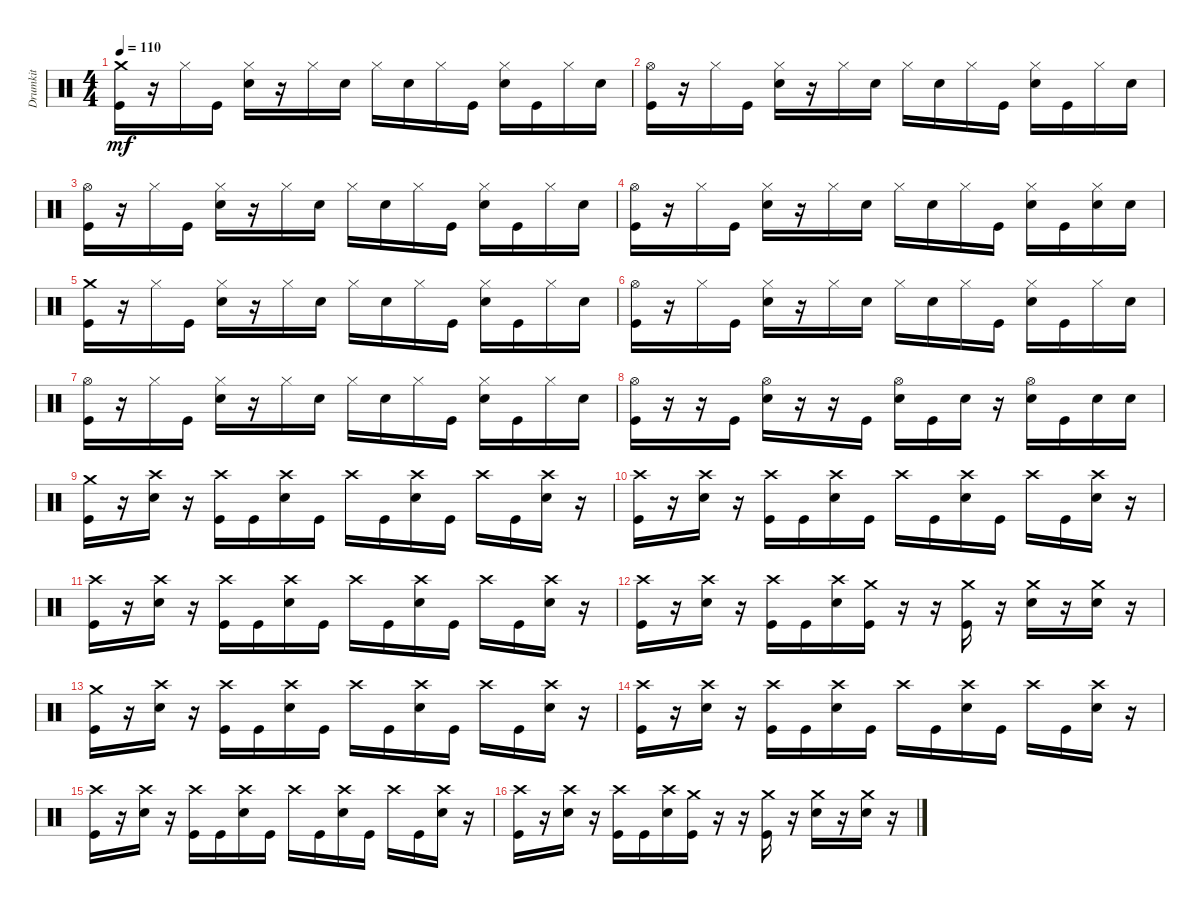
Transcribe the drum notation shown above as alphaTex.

\track ("Drumkit" "Drumkit") {instrument percussion}
\staff {score}
\articulation defaults
\ts (4 4)
\tempo 110
\clef neutral
\ks c
("Crash medium (hit)" "Kick (hit)").16{dy mf} r.16 "Hi-Hat (closed)".16 "Kick (hit)".16 ("Hi-Hat (closed)" "Snare (hit) 2").16 r.16 "Hi-Hat (closed)".16 "Snare (hit) 2".16 "Hi-Hat (closed)".16 "Snare (hit) 2".16 "Hi-Hat (closed)".16 "Kick (hit)".16 ("Hi-Hat (closed)" "Snare (hit) 2").16 "Kick (hit)".16 "Hi-Hat (closed)".16 "Snare (hit) 2".16 |
("Kick (hit)" "Hi-Hat (open)").16 r.16 "Hi-Hat (closed)".16 "Kick (hit)".16 ("Hi-Hat (closed)" "Snare (hit) 2").16 r.16 "Hi-Hat (closed)".16 "Snare (hit) 2".16 "Hi-Hat (closed)".16 "Snare (hit) 2".16 "Hi-Hat (closed)".16 "Kick (hit)".16 ("Hi-Hat (closed)" "Snare (hit) 2").16 "Kick (hit)".16 "Hi-Hat (closed)".16 "Snare (hit) 2".16 |
("Kick (hit)" "Hi-Hat (open)").16 r.16 "Hi-Hat (closed)".16 "Kick (hit)".16 ("Hi-Hat (closed)" "Snare (hit) 2").16 r.16 "Hi-Hat (closed)".16 "Snare (hit) 2".16 "Hi-Hat (closed)".16 "Snare (hit) 2".16 "Hi-Hat (closed)".16 "Kick (hit)".16 ("Hi-Hat (closed)" "Snare (hit) 2").16 "Kick (hit)".16 "Hi-Hat (closed)".16 "Snare (hit) 2".16 |
("Kick (hit)" "Hi-Hat (open)").16 r.16 "Hi-Hat (closed)".16 "Kick (hit)".16 ("Hi-Hat (closed)" "Snare (hit) 2").16 r.16 "Hi-Hat (closed)".16 "Snare (hit) 2".16 "Hi-Hat (closed)".16 "Snare (hit) 2".16 "Hi-Hat (closed)".16 "Kick (hit)".16 ("Hi-Hat (closed)" "Snare (hit) 2").16 "Kick (hit)".16 ("Hi-Hat (closed)" "Snare (hit) 2").16 "Snare (hit) 2".16 |
("Crash medium (hit)" "Kick (hit)").16 r.16 "Hi-Hat (closed)".16 "Kick (hit)".16 ("Hi-Hat (closed)" "Snare (hit) 2").16 r.16 "Hi-Hat (closed)".16 "Snare (hit) 2".16 "Hi-Hat (closed)".16 "Snare (hit) 2".16 "Hi-Hat (closed)".16 "Kick (hit)".16 ("Hi-Hat (closed)" "Snare (hit) 2").16 "Kick (hit)".16 "Hi-Hat (closed)".16 "Snare (hit) 2".16 |
("Kick (hit)" "Hi-Hat (open)").16 r.16 "Hi-Hat (closed)".16 "Kick (hit)".16 ("Hi-Hat (closed)" "Snare (hit) 2").16 r.16 "Hi-Hat (closed)".16 "Snare (hit) 2".16 "Hi-Hat (closed)".16 "Snare (hit) 2".16 "Hi-Hat (closed)".16 "Kick (hit)".16 ("Hi-Hat (closed)" "Snare (hit) 2").16 "Kick (hit)".16 "Hi-Hat (closed)".16 "Snare (hit) 2".16 |
("Kick (hit)" "Hi-Hat (open)").16 r.16 "Hi-Hat (closed)".16 "Kick (hit)".16 ("Hi-Hat (closed)" "Snare (hit) 2").16 r.16 "Hi-Hat (closed)".16 "Snare (hit) 2".16 "Hi-Hat (closed)".16 "Snare (hit) 2".16 "Hi-Hat (closed)".16 "Kick (hit)".16 ("Hi-Hat (closed)" "Snare (hit) 2").16 "Kick (hit)".16 "Hi-Hat (closed)".16 "Snare (hit) 2".16 |
("Kick (hit)" "Hi-Hat (open)").16 r.16 r.16 "Kick (hit)".16 ("Hi-Hat (open)" "Snare (hit) 2").16 r.16 r.16 "Kick (hit)".16 ("Hi-Hat (open)" "Snare (hit) 2").16 "Kick (hit)".16 "Snare (hit) 2".16 r.16 ("Hi-Hat (open)" "Snare (hit) 2").16 "Kick (hit)".16 "Snare (hit) 2".16 "Snare (hit) 2".16 |
("Crash medium (hit)" "Kick (hit)").16 r.16 ("Crash high (hit)" "Snare (hit) 2").16 r.16 ("Crash high (hit)" "Kick (hit)").16 "Kick (hit)".16 ("Crash high (hit)" "Snare (hit) 2").16 "Kick (hit)".16 "Crash high (hit)".16 "Kick (hit)".16 ("Crash high (hit)" "Snare (hit) 2").16 "Kick (hit)".16 "Crash high (hit)".16 "Kick (hit)".16 ("Crash high (hit)" "Snare (hit) 2").16 r.16 |
("Kick (hit)" "Crash high (hit)").16 r.16 ("Crash high (hit)" "Snare (hit) 2").16 r.16 ("Crash high (hit)" "Kick (hit)").16 "Kick (hit)".16 ("Crash high (hit)" "Snare (hit) 2").16 "Kick (hit)".16 "Crash high (hit)".16 "Kick (hit)".16 ("Crash high (hit)" "Snare (hit) 2").16 "Kick (hit)".16 "Crash high (hit)".16 "Kick (hit)".16 ("Crash high (hit)" "Snare (hit) 2").16 r.16 |
("Kick (hit)" "Crash high (hit)").16 r.16 ("Crash high (hit)" "Snare (hit) 2").16 r.16 ("Crash high (hit)" "Kick (hit)").16 "Kick (hit)".16 ("Crash high (hit)" "Snare (hit) 2").16 "Kick (hit)".16 "Crash high (hit)".16 "Kick (hit)".16 ("Crash high (hit)" "Snare (hit) 2").16 "Kick (hit)".16 "Crash high (hit)".16 "Kick (hit)".16 ("Crash high (hit)" "Snare (hit) 2").16 r.16 |
("Kick (hit)" "Crash high (hit)").16 r.16 ("Crash high (hit)" "Snare (hit) 2").16 r.16 ("Crash high (hit)" "Kick (hit)").16 "Kick (hit)".16 ("Crash high (hit)" "Snare (hit) 2").16 ("Crash medium (hit)" "Kick (hit)").16 r.16 r.16 ("Crash medium (hit)" "Kick (hit)").16 r.16 ("Crash medium (hit)" "Snare (hit) 2").16 r.16 ("Crash medium (hit)" "Snare (hit) 2").16 r.16 |
("Crash medium (hit)" "Kick (hit)").16 r.16 ("Crash high (hit)" "Snare (hit) 2").16 r.16 ("Crash high (hit)" "Kick (hit)").16 "Kick (hit)".16 ("Crash high (hit)" "Snare (hit) 2").16 "Kick (hit)".16 "Crash high (hit)".16 "Kick (hit)".16 ("Crash high (hit)" "Snare (hit) 2").16 "Kick (hit)".16 "Crash high (hit)".16 "Kick (hit)".16 ("Crash high (hit)" "Snare (hit) 2").16 r.16 |
("Kick (hit)" "Crash high (hit)").16 r.16 ("Crash high (hit)" "Snare (hit) 2").16 r.16 ("Crash high (hit)" "Kick (hit)").16 "Kick (hit)".16 ("Crash high (hit)" "Snare (hit) 2").16 "Kick (hit)".16 "Crash high (hit)".16 "Kick (hit)".16 ("Crash high (hit)" "Snare (hit) 2").16 "Kick (hit)".16 "Crash high (hit)".16 "Kick (hit)".16 ("Crash high (hit)" "Snare (hit) 2").16 r.16 |
("Kick (hit)" "Crash high (hit)").16 r.16 ("Crash high (hit)" "Snare (hit) 2").16 r.16 ("Crash high (hit)" "Kick (hit)").16 "Kick (hit)".16 ("Crash high (hit)" "Snare (hit) 2").16 "Kick (hit)".16 "Crash high (hit)".16 "Kick (hit)".16 ("Crash high (hit)" "Snare (hit) 2").16 "Kick (hit)".16 "Crash high (hit)".16 "Kick (hit)".16 ("Crash high (hit)" "Snare (hit) 2").16 r.16 |
("Kick (hit)" "Crash high (hit)").16 r.16 ("Crash high (hit)" "Snare (hit) 2").16 r.16 ("Crash high (hit)" "Kick (hit)").16 "Kick (hit)".16 ("Crash high (hit)" "Snare (hit) 2").16 ("Crash medium (hit)" "Kick (hit)").16 r.16 r.16 ("Crash medium (hit)" "Kick (hit)").16 r.16 ("Crash medium (hit)" "Snare (hit) 2").16 r.16 ("Crash medium (hit)" "Snare (hit) 2").16 r.16
